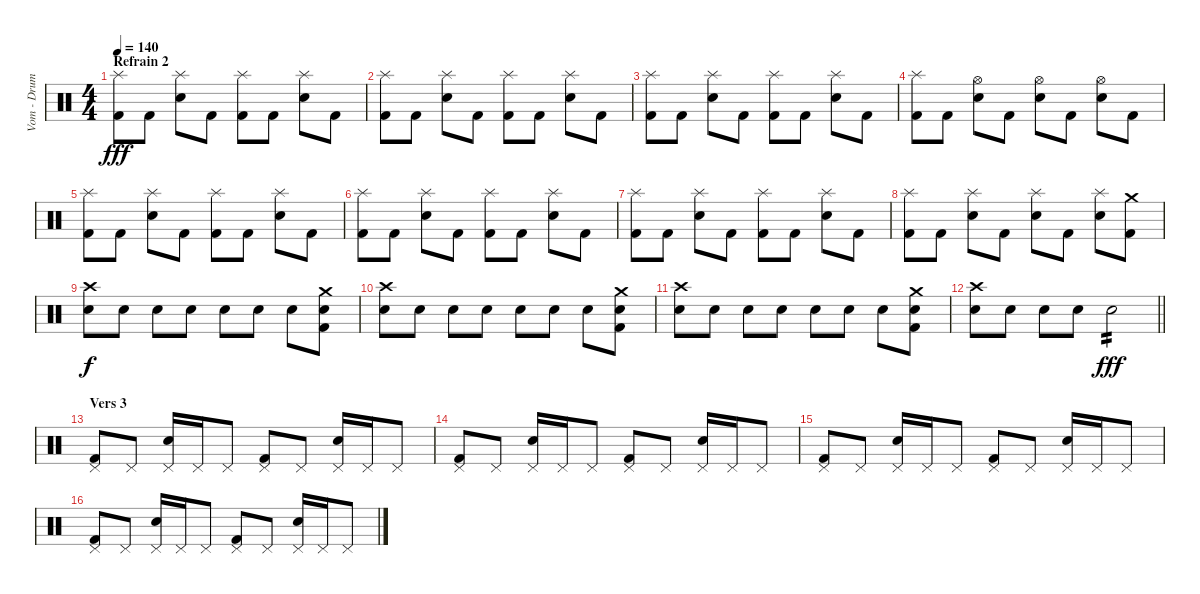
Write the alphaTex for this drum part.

\track ("Vom - Drums" "Vom - Drum") {instrument percussion}
\staff {score}
\articulation defaults
\ts (4 4)
\section ("" "Refrain 2")
\tempo 140
\clef neutral
\ks c
("Splash (hit)" "Kick (hit) 2").8{dy fff} "Kick (hit) 2".8 ("Splash (hit)" "Snare (hit) 2").8 "Kick (hit) 2".8 ("Splash (hit)" "Kick (hit) 2").8 "Kick (hit) 2".8 ("Splash (hit)" "Snare (hit) 2").8 "Kick (hit) 2".8 |
("Splash (hit)" "Kick (hit) 2").8 "Kick (hit) 2".8 ("Splash (hit)" "Snare (hit) 2").8 "Kick (hit) 2".8 ("Splash (hit)" "Kick (hit) 2").8 "Kick (hit) 2".8 ("Splash (hit)" "Snare (hit) 2").8 "Kick (hit) 2".8 |
("Splash (hit)" "Kick (hit) 2").8 "Kick (hit) 2".8 ("Splash (hit)" "Snare (hit) 2").8 "Kick (hit) 2".8 ("Splash (hit)" "Kick (hit) 2").8 "Kick (hit) 2".8 ("Splash (hit)" "Snare (hit) 2").8 "Kick (hit) 2".8 |
("Splash (hit)" "Kick (hit) 2").8 "Kick (hit) 2".8 ("Hi-Hat (open)" "Snare (hit) 2").8 "Kick (hit) 2".8 ("Hi-Hat (open)" "Snare (hit) 2").8 "Kick (hit) 2".8 ("Hi-Hat (open)" "Snare (hit) 2").8 "Kick (hit) 2".8 |
("Splash (hit)" "Kick (hit) 2").8 "Kick (hit) 2".8 ("Splash (hit)" "Snare (hit) 2").8 "Kick (hit) 2".8 ("Splash (hit)" "Kick (hit) 2").8 "Kick (hit) 2".8 ("Splash (hit)" "Snare (hit) 2").8 "Kick (hit) 2".8 |
("Splash (hit)" "Kick (hit) 2").8 "Kick (hit) 2".8 ("Splash (hit)" "Snare (hit) 2").8 "Kick (hit) 2".8 ("Splash (hit)" "Kick (hit) 2").8 "Kick (hit) 2".8 ("Splash (hit)" "Snare (hit) 2").8 "Kick (hit) 2".8 |
("Splash (hit)" "Kick (hit) 2").8 "Kick (hit) 2".8 ("Splash (hit)" "Snare (hit) 2").8 "Kick (hit) 2".8 ("Splash (hit)" "Kick (hit) 2").8 "Kick (hit) 2".8 ("Splash (hit)" "Snare (hit) 2").8 "Kick (hit) 2".8 |
("Splash (hit)" "Kick (hit) 2").8 "Kick (hit) 2".8 ("Splash (hit)" "Snare (hit) 2").8 "Kick (hit) 2".8 ("Splash (hit)" "Snare (hit) 2").8 "Kick (hit) 2".8 ("Splash (hit)" "Snare (hit) 2").8 ("Crash medium (hit)" "Kick (hit) 2").8 |
("Crash high (hit)" "Snare (hit) 2").8{dy f} "Snare (hit) 2".8 "Snare (hit) 2".8 "Snare (hit) 2".8 "Snare (hit) 2".8 "Snare (hit) 2".8 "Snare (hit) 2".8 ("Crash medium (hit)" "Snare (hit) 2" "Kick (hit) 2").8 |
("Crash high (hit)" "Snare (hit) 2").8 "Snare (hit) 2".8 "Snare (hit) 2".8 "Snare (hit) 2".8 "Snare (hit) 2".8 "Snare (hit) 2".8 "Snare (hit) 2".8 ("Crash medium (hit)" "Snare (hit) 2" "Kick (hit) 2").8 |
("Crash high (hit)" "Snare (hit) 2").8 "Snare (hit) 2".8 "Snare (hit) 2".8 "Snare (hit) 2".8 "Snare (hit) 2".8 "Snare (hit) 2".8 "Snare (hit) 2".8 ("Crash medium (hit)" "Snare (hit) 2" "Kick (hit) 2").8 |
\barLineRight lightlight
("Crash high (hit)" "Snare (hit) 2").8 "Snare (hit) 2".8 "Snare (hit) 2".8 "Snare (hit) 2".8 "Snare (hit) 2".2{tp 2 dy fff} |
\section ("" "Vers 3")
("Pedal Hi-Hat (hit)" "Kick (hit) 2").8 "Pedal Hi-Hat (hit)".8 ("Pedal Hi-Hat (hit)" "Snare (hit) 2").16 "Pedal Hi-Hat (hit)".16 "Pedal Hi-Hat (hit)".8 ("Pedal Hi-Hat (hit)" "Kick (hit) 2").8 "Pedal Hi-Hat (hit)".8 ("Pedal Hi-Hat (hit)" "Snare (hit) 2").16 "Pedal Hi-Hat (hit)".16 "Pedal Hi-Hat (hit)".8 |
("Pedal Hi-Hat (hit)" "Kick (hit) 2").8 "Pedal Hi-Hat (hit)".8 ("Pedal Hi-Hat (hit)" "Snare (hit) 2").16 "Pedal Hi-Hat (hit)".16 "Pedal Hi-Hat (hit)".8 ("Pedal Hi-Hat (hit)" "Kick (hit) 2").8 "Pedal Hi-Hat (hit)".8 ("Pedal Hi-Hat (hit)" "Snare (hit) 2").16 "Pedal Hi-Hat (hit)".16 "Pedal Hi-Hat (hit)".8 |
("Pedal Hi-Hat (hit)" "Kick (hit) 2").8 "Pedal Hi-Hat (hit)".8 ("Pedal Hi-Hat (hit)" "Snare (hit) 2").16 "Pedal Hi-Hat (hit)".16 "Pedal Hi-Hat (hit)".8 ("Pedal Hi-Hat (hit)" "Kick (hit) 2").8 "Pedal Hi-Hat (hit)".8 ("Pedal Hi-Hat (hit)" "Snare (hit) 2").16 "Pedal Hi-Hat (hit)".16 "Pedal Hi-Hat (hit)".8 |
("Pedal Hi-Hat (hit)" "Kick (hit) 2").8 "Pedal Hi-Hat (hit)".8 ("Pedal Hi-Hat (hit)" "Snare (hit) 2").16 "Pedal Hi-Hat (hit)".16 "Pedal Hi-Hat (hit)".8 ("Pedal Hi-Hat (hit)" "Kick (hit) 2").8 "Pedal Hi-Hat (hit)".8 ("Pedal Hi-Hat (hit)" "Snare (hit) 2").16 "Pedal Hi-Hat (hit)".16 "Pedal Hi-Hat (hit)".8
